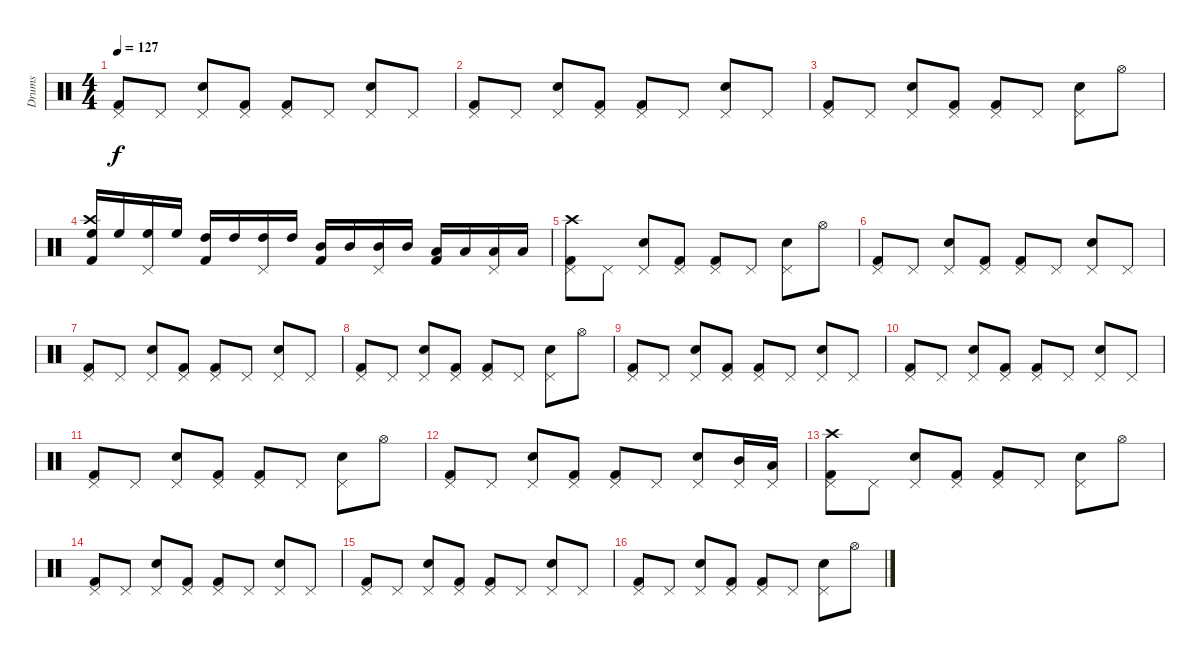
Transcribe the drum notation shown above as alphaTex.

\track ("Drums" "Drums") {instrument percussion}
\staff {score}
\articulation defaults
\ts (4 4)
\tempo 127
\clef neutral
\ks c
("Pedal Hi-Hat (hit)" "Kick (hit) 2").8{dy f} "Pedal Hi-Hat (hit)".8 ("Pedal Hi-Hat (hit)" "Snare (hit) 2").8 ("Pedal Hi-Hat (hit)" "Kick (hit) 2").8 ("Pedal Hi-Hat (hit)" "Kick (hit) 2").8 "Pedal Hi-Hat (hit)".8 ("Pedal Hi-Hat (hit)" "Snare (hit) 2").8 "Pedal Hi-Hat (hit)".8 |
("Pedal Hi-Hat (hit)" "Kick (hit) 2").8 "Pedal Hi-Hat (hit)".8 ("Pedal Hi-Hat (hit)" "Snare (hit) 2").8 ("Pedal Hi-Hat (hit)" "Kick (hit) 2").8 ("Pedal Hi-Hat (hit)" "Kick (hit) 2").8 "Pedal Hi-Hat (hit)".8 ("Pedal Hi-Hat (hit)" "Snare (hit) 2").8 "Pedal Hi-Hat (hit)".8 |
("Pedal Hi-Hat (hit)" "Kick (hit) 2").8 "Pedal Hi-Hat (hit)".8 ("Pedal Hi-Hat (hit)" "Snare (hit) 2").8 ("Pedal Hi-Hat (hit)" "Kick (hit) 2").8 ("Pedal Hi-Hat (hit)" "Kick (hit) 2").8 "Pedal Hi-Hat (hit)".8 ("Pedal Hi-Hat (hit)" "Snare (hit) 2").8 "Hi-Hat (open)".8 |
("Crash high (hit)" "High Floor Tom (hit)" "Kick (hit) 2").16 "High Floor Tom (hit)".16 ("Pedal Hi-Hat (hit)" "High Floor Tom (hit)").16 "High Floor Tom (hit)".16 ("High Tom (hit)" "Kick (hit) 2").16 "High Tom (hit)".16 ("Pedal Hi-Hat (hit)" "High Tom (hit)").16 "High Tom (hit)".16 ("Mid Tom (hit)" "Kick (hit) 2").16 "Mid Tom (hit)".16 ("Pedal Hi-Hat (hit)" "Mid Tom (hit)").16 "Mid Tom (hit)".16 ("Low Tom (hit)" "Kick (hit) 2").16 "Low Tom (hit)".16 ("Pedal Hi-Hat (hit)" "Low Tom (hit)").16 "Low Tom (hit)".16 |
("Crash high (hit)" "Pedal Hi-Hat (hit)" "Kick (hit) 2").8 "Pedal Hi-Hat (hit)".8 ("Pedal Hi-Hat (hit)" "Snare (hit) 2").8 ("Pedal Hi-Hat (hit)" "Kick (hit) 2").8 ("Pedal Hi-Hat (hit)" "Kick (hit) 2").8 "Pedal Hi-Hat (hit)".8 ("Pedal Hi-Hat (hit)" "Snare (hit) 2").8 "Hi-Hat (open)".8 |
("Pedal Hi-Hat (hit)" "Kick (hit) 2").8 "Pedal Hi-Hat (hit)".8 ("Pedal Hi-Hat (hit)" "Snare (hit) 2").8 ("Pedal Hi-Hat (hit)" "Kick (hit) 2").8 ("Pedal Hi-Hat (hit)" "Kick (hit) 2").8 "Pedal Hi-Hat (hit)".8 ("Pedal Hi-Hat (hit)" "Snare (hit) 2").8 "Pedal Hi-Hat (hit)".8 |
("Pedal Hi-Hat (hit)" "Kick (hit) 2").8 "Pedal Hi-Hat (hit)".8 ("Pedal Hi-Hat (hit)" "Snare (hit) 2").8 ("Pedal Hi-Hat (hit)" "Kick (hit) 2").8 ("Pedal Hi-Hat (hit)" "Kick (hit) 2").8 "Pedal Hi-Hat (hit)".8 ("Pedal Hi-Hat (hit)" "Snare (hit) 2").8 "Pedal Hi-Hat (hit)".8 |
("Pedal Hi-Hat (hit)" "Kick (hit) 2").8 "Pedal Hi-Hat (hit)".8 ("Pedal Hi-Hat (hit)" "Snare (hit) 2").8 ("Pedal Hi-Hat (hit)" "Kick (hit) 2").8 ("Pedal Hi-Hat (hit)" "Kick (hit) 2").8 "Pedal Hi-Hat (hit)".8 ("Pedal Hi-Hat (hit)" "Snare (hit) 2").8 "Hi-Hat (open)".8 |
("Pedal Hi-Hat (hit)" "Kick (hit) 2").8 "Pedal Hi-Hat (hit)".8 ("Pedal Hi-Hat (hit)" "Snare (hit) 2").8 ("Pedal Hi-Hat (hit)" "Kick (hit) 2").8 ("Pedal Hi-Hat (hit)" "Kick (hit) 2").8 "Pedal Hi-Hat (hit)".8 ("Pedal Hi-Hat (hit)" "Snare (hit) 2").8 "Pedal Hi-Hat (hit)".8 |
("Pedal Hi-Hat (hit)" "Kick (hit) 2").8 "Pedal Hi-Hat (hit)".8 ("Pedal Hi-Hat (hit)" "Snare (hit) 2").8 ("Pedal Hi-Hat (hit)" "Kick (hit) 2").8 ("Pedal Hi-Hat (hit)" "Kick (hit) 2").8 "Pedal Hi-Hat (hit)".8 ("Pedal Hi-Hat (hit)" "Snare (hit) 2").8 "Pedal Hi-Hat (hit)".8 |
("Pedal Hi-Hat (hit)" "Kick (hit) 2").8 "Pedal Hi-Hat (hit)".8 ("Pedal Hi-Hat (hit)" "Snare (hit) 2").8 ("Pedal Hi-Hat (hit)" "Kick (hit) 2").8 ("Pedal Hi-Hat (hit)" "Kick (hit) 2").8 "Pedal Hi-Hat (hit)".8 ("Pedal Hi-Hat (hit)" "Snare (hit) 2").8 "Hi-Hat (open)".8 |
("Pedal Hi-Hat (hit)" "Kick (hit) 2").8 "Pedal Hi-Hat (hit)".8 ("Pedal Hi-Hat (hit)" "Snare (hit) 2").8 ("Pedal Hi-Hat (hit)" "Kick (hit) 2").8 ("Pedal Hi-Hat (hit)" "Kick (hit) 2").8 "Pedal Hi-Hat (hit)".8 ("Pedal Hi-Hat (hit)" "Snare (hit) 2").8 ("Pedal Hi-Hat (hit)" "Mid Tom (hit)").16 ("Pedal Hi-Hat (hit)" "Low Tom (hit)").16 |
("Crash high (hit)" "Pedal Hi-Hat (hit)" "Kick (hit) 2").8 "Pedal Hi-Hat (hit)".8 ("Pedal Hi-Hat (hit)" "Snare (hit) 2").8 ("Pedal Hi-Hat (hit)" "Kick (hit) 2").8 ("Pedal Hi-Hat (hit)" "Kick (hit) 2").8 "Pedal Hi-Hat (hit)".8 ("Pedal Hi-Hat (hit)" "Snare (hit) 2").8 "Hi-Hat (open)".8 |
("Pedal Hi-Hat (hit)" "Kick (hit) 2").8 "Pedal Hi-Hat (hit)".8 ("Pedal Hi-Hat (hit)" "Snare (hit) 2").8 ("Pedal Hi-Hat (hit)" "Kick (hit) 2").8 ("Pedal Hi-Hat (hit)" "Kick (hit) 2").8 "Pedal Hi-Hat (hit)".8 ("Pedal Hi-Hat (hit)" "Snare (hit) 2").8 "Pedal Hi-Hat (hit)".8 |
("Pedal Hi-Hat (hit)" "Kick (hit) 2").8 "Pedal Hi-Hat (hit)".8 ("Pedal Hi-Hat (hit)" "Snare (hit) 2").8 ("Pedal Hi-Hat (hit)" "Kick (hit) 2").8 ("Pedal Hi-Hat (hit)" "Kick (hit) 2").8 "Pedal Hi-Hat (hit)".8 ("Pedal Hi-Hat (hit)" "Snare (hit) 2").8 "Pedal Hi-Hat (hit)".8 |
("Pedal Hi-Hat (hit)" "Kick (hit) 2").8 "Pedal Hi-Hat (hit)".8 ("Pedal Hi-Hat (hit)" "Snare (hit) 2").8 ("Pedal Hi-Hat (hit)" "Kick (hit) 2").8 ("Pedal Hi-Hat (hit)" "Kick (hit) 2").8 "Pedal Hi-Hat (hit)".8 ("Pedal Hi-Hat (hit)" "Snare (hit) 2").8 "Hi-Hat (open)".8
